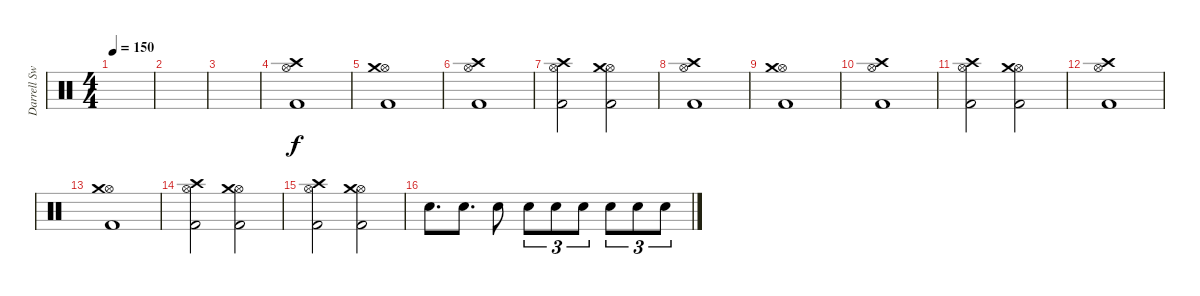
\track ("Darrell Sweet (drums)" "Darrell Sw") {instrument percussion}
\staff {score}
\articulation defaults
\ts (4 4)
\tempo 150
\clef neutral
\ks c
|
|
|
("Hi-Hat (open)" "Kick (hit) 2" "Crash high (hit)").1 |
("Hi-Hat (open)" "Kick (hit) 2" "Crash medium (hit)").1 |
("Hi-Hat (open)" "Kick (hit) 2" "Crash high (hit)").1 |
("Hi-Hat (open)" "Kick (hit) 2" "Crash high (hit)").2 ("Hi-Hat (open)" "Kick (hit) 2" "Crash medium (hit)").2 |
("Hi-Hat (open)" "Kick (hit) 2" "Crash high (hit)").1 |
("Hi-Hat (open)" "Kick (hit) 2" "Crash medium (hit)").1 |
("Hi-Hat (open)" "Kick (hit) 2" "Crash high (hit)").1 |
("Hi-Hat (open)" "Kick (hit) 2" "Crash high (hit)").2 ("Hi-Hat (open)" "Kick (hit) 2" "Crash medium (hit)").2 |
("Hi-Hat (open)" "Kick (hit) 2" "Crash high (hit)").1 |
("Hi-Hat (open)" "Kick (hit) 2" "Crash medium (hit)").1 |
("Hi-Hat (open)" "Kick (hit) 2" "Crash high (hit)").2 ("Hi-Hat (open)" "Kick (hit) 2" "Crash medium (hit)").2 |
("Hi-Hat (open)" "Kick (hit) 2" "Crash high (hit)").2 ("Hi-Hat (open)" "Kick (hit) 2" "Crash medium (hit)").2 |
"Snare (hit) 2".8{d} "Snare (hit) 2".8{d} "Snare (hit) 2".8 "Snare (hit) 2".8{tu (3 2)} "Snare (hit) 2".8{tu (3 2)} "Snare (hit) 2".8{tu (3 2)} "Snare (hit) 2".8{tu (3 2)} "Snare (hit) 2".8{tu (3 2)} "Snare (hit) 2".8{tu (3 2)}
